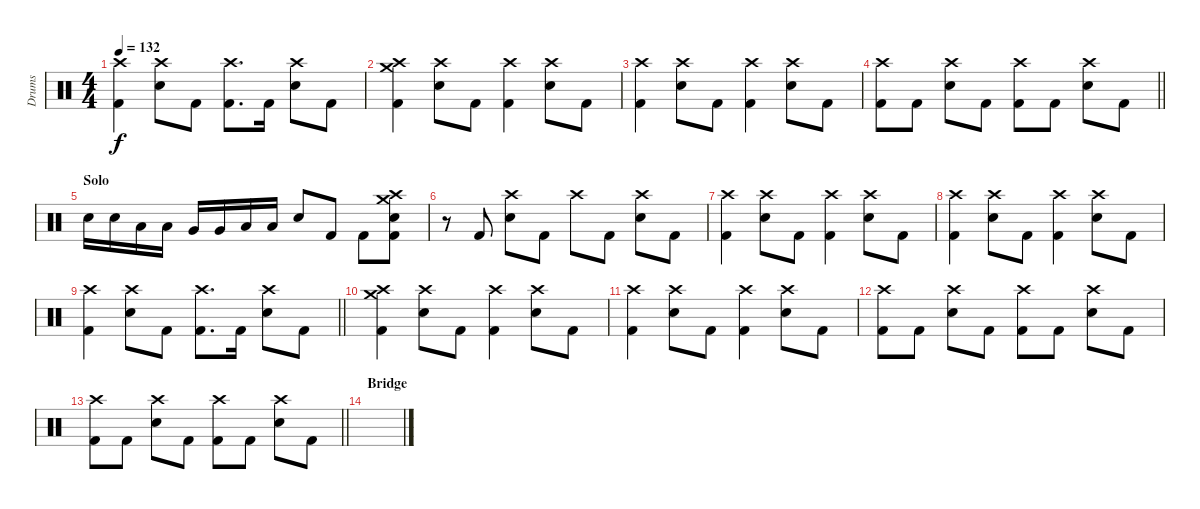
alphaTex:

\track ("Drums" "Drums") {instrument percussion}
\staff {score}
\articulation defaults
\ts (4 4)
\tempo 132
\clef neutral
\ks c
("Crash high (hit)" "Kick (hit) 2").4{dy f} ("Crash high (hit)" "Electric Snare (hit)").8 "Kick (hit) 2".8 ("Crash high (hit)" "Kick (hit) 2").8{d} "Kick (hit) 2".16 ("Crash high (hit)" "Electric Snare (hit)").8 "Kick (hit) 2".8 |
("Crash medium (hit)" "Crash high (hit)" "Kick (hit) 2").4 ("Crash high (hit)" "Electric Snare (hit)").8 "Kick (hit) 2".8 ("Crash high (hit)" "Kick (hit) 2").4 ("Crash high (hit)" "Electric Snare (hit)").8 "Kick (hit) 2".8 |
("Crash high (hit)" "Kick (hit) 2").4 ("Crash high (hit)" "Electric Snare (hit)").8 "Kick (hit) 2".8 ("Crash high (hit)" "Kick (hit) 2").4 ("Crash high (hit)" "Electric Snare (hit)").8 "Kick (hit) 2".8 |
\barLineRight lightlight
("Crash high (hit)" "Kick (hit) 2").8 "Kick (hit) 2".8 ("Crash high (hit)" "Electric Snare (hit)").8 "Kick (hit) 2".8 ("Crash high (hit)" "Kick (hit) 2").8 "Kick (hit) 2".8 ("Crash high (hit)" "Electric Snare (hit)").8 "Kick (hit) 2".8 |
\section ("" "Solo")
"Electric Snare (hit)".16 "Electric Snare (hit)".16 "Low Tom (hit)".16 "Low Tom (hit)".16 "Very Low Tom (hit)".16 "Very Low Tom (hit)".16 "Low Tom (hit)".16 "Low Tom (hit)".16 "Electric Snare (hit)".8 "Kick (hit) 2".8 "Kick (hit) 2".8 ("Crash medium (hit)" "Crash high (hit)" "Electric Snare (hit)" "Kick (hit) 2").8 |
r.8 "Kick (hit) 2".8 ("Crash high (hit)" "Electric Snare (hit)").8 "Kick (hit) 2".8 "Crash high (hit)".8 "Kick (hit) 2".8 ("Crash high (hit)" "Electric Snare (hit)").8 "Kick (hit) 2".8 |
("Crash high (hit)" "Kick (hit) 2").4 ("Crash high (hit)" "Electric Snare (hit)").8 "Kick (hit) 2".8 ("Crash high (hit)" "Kick (hit) 2").4 ("Crash high (hit)" "Electric Snare (hit)").8 "Kick (hit) 2".8 |
("Crash high (hit)" "Kick (hit) 2").4 ("Crash high (hit)" "Electric Snare (hit)").8 "Kick (hit) 2".8 ("Crash high (hit)" "Kick (hit) 2").4 ("Crash high (hit)" "Electric Snare (hit)").8 "Kick (hit) 2".8 |
\barLineRight lightlight
("Crash high (hit)" "Kick (hit) 2").4 ("Crash high (hit)" "Electric Snare (hit)").8 "Kick (hit) 2".8 ("Crash high (hit)" "Kick (hit) 2").8{d} "Kick (hit) 2".16 ("Crash high (hit)" "Electric Snare (hit)").8 "Kick (hit) 2".8 |
("Crash medium (hit)" "Crash high (hit)" "Kick (hit) 2").4 ("Crash high (hit)" "Electric Snare (hit)").8 "Kick (hit) 2".8 ("Crash high (hit)" "Kick (hit) 2").4 ("Crash high (hit)" "Electric Snare (hit)").8 "Kick (hit) 2".8 |
("Crash high (hit)" "Kick (hit) 2").4 ("Crash high (hit)" "Electric Snare (hit)").8 "Kick (hit) 2".8 ("Crash high (hit)" "Kick (hit) 2").4 ("Crash high (hit)" "Electric Snare (hit)").8 "Kick (hit) 2".8 |
("Crash high (hit)" "Kick (hit) 2").8 "Kick (hit) 2".8 ("Crash high (hit)" "Electric Snare (hit)").8 "Kick (hit) 2".8 ("Crash high (hit)" "Kick (hit) 2").8 "Kick (hit) 2".8 ("Crash high (hit)" "Electric Snare (hit)").8 "Kick (hit) 2".8 |
\barLineRight lightlight
("Crash high (hit)" "Kick (hit) 2").8 "Kick (hit) 2".8 ("Crash high (hit)" "Electric Snare (hit)").8 "Kick (hit) 2".8 ("Crash high (hit)" "Kick (hit) 2").8 "Kick (hit) 2".8 ("Crash high (hit)" "Electric Snare (hit)").8 "Kick (hit) 2".8 |
\section ("" "Bridge")
